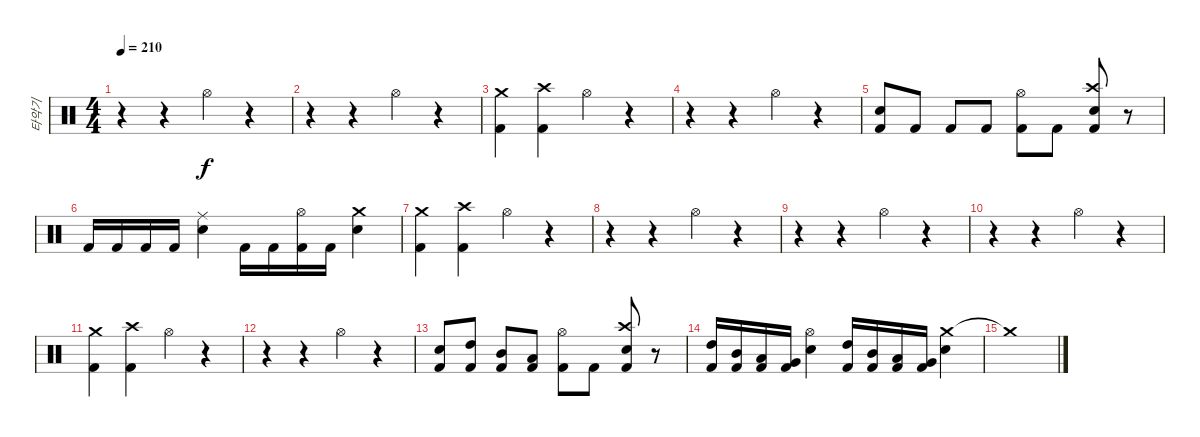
\track ("타악기" "타악기") {instrument percussion}
\staff {score}
\articulation defaults
\ts (4 4)
\tempo 210
\clef neutral
\ks c
r.4{dy f} r.4 "Hi-Hat (open)".4 r.4 |
r.4 r.4 "Hi-Hat (open)".4 r.4 |
("Crash medium (hit)" "Kick (hit) 2").4 ("Crash high (hit)" "Kick (hit) 2").4 "Hi-Hat (open)".4 r.4 |
r.4 r.4 "Hi-Hat (open)".4 r.4 |
("Snare (hit) 2" "Kick (hit) 2").8 "Kick (hit) 2".8 "Kick (hit) 2".8 "Kick (hit) 2".8 ("Hi-Hat (open)" "Kick (hit) 2").8 "Kick (hit) 2".8 ("Crash high (hit)" "Snare (hit) 2" "Kick (hit) 2").8 r.8 |
"Kick (hit) 2".16 "Kick (hit) 2".16 "Kick (hit) 2".16 "Kick (hit) 2".16 ("Ride (middle)" "Snare (hit) 2").4 "Kick (hit) 2".16 "Kick (hit) 2".16 ("Hi-Hat (open)" "Kick (hit) 2").16 "Kick (hit) 2".16 ("Crash medium (hit)" "Snare (hit) 2").4 |
("Crash medium (hit)" "Kick (hit) 2").4 ("Crash high (hit)" "Kick (hit) 2").4 "Hi-Hat (open)".4 r.4 |
r.4 r.4 "Hi-Hat (open)".4 r.4 |
r.4 r.4 "Hi-Hat (open)".4 r.4 |
r.4 r.4 "Hi-Hat (open)".4 r.4 |
("Crash medium (hit)" "Kick (hit) 2").4 ("Crash high (hit)" "Kick (hit) 2").4 "Hi-Hat (open)".4 r.4 |
r.4 r.4 "Hi-Hat (open)".4 r.4 |
("Snare (hit) 2" "Kick (hit) 2").8 ("High Tom (hit)" "Kick (hit) 2").8 ("Mid Tom (hit)" "Kick (hit) 2").8 ("Low Tom (hit)" "Kick (hit) 2").8 ("Hi-Hat (open)" "Kick (hit) 2").8 "Kick (hit) 2".8 ("Crash high (hit)" "Snare (hit) 2" "Kick (hit) 2").8 r.8 |
("High Tom (hit)" "Kick (hit) 2").16 ("Mid Tom (hit)" "Kick (hit) 2").16 ("Low Tom (hit)" "Kick (hit) 2").16 ("Very Low Tom (hit)" "Kick (hit) 2").16 ("Hi-Hat (open)" "Snare (hit) 2").4 ("High Tom (hit)" "Kick (hit) 2").16 ("Mid Tom (hit)" "Kick (hit) 2").16 ("Low Tom (hit)" "Kick (hit) 2").16 ("Very Low Tom (hit)" "Kick (hit) 2").16 ("Crash medium (hit)" "Snare (hit) 2").4 |
"Crash medium (hit)"{t}.1
